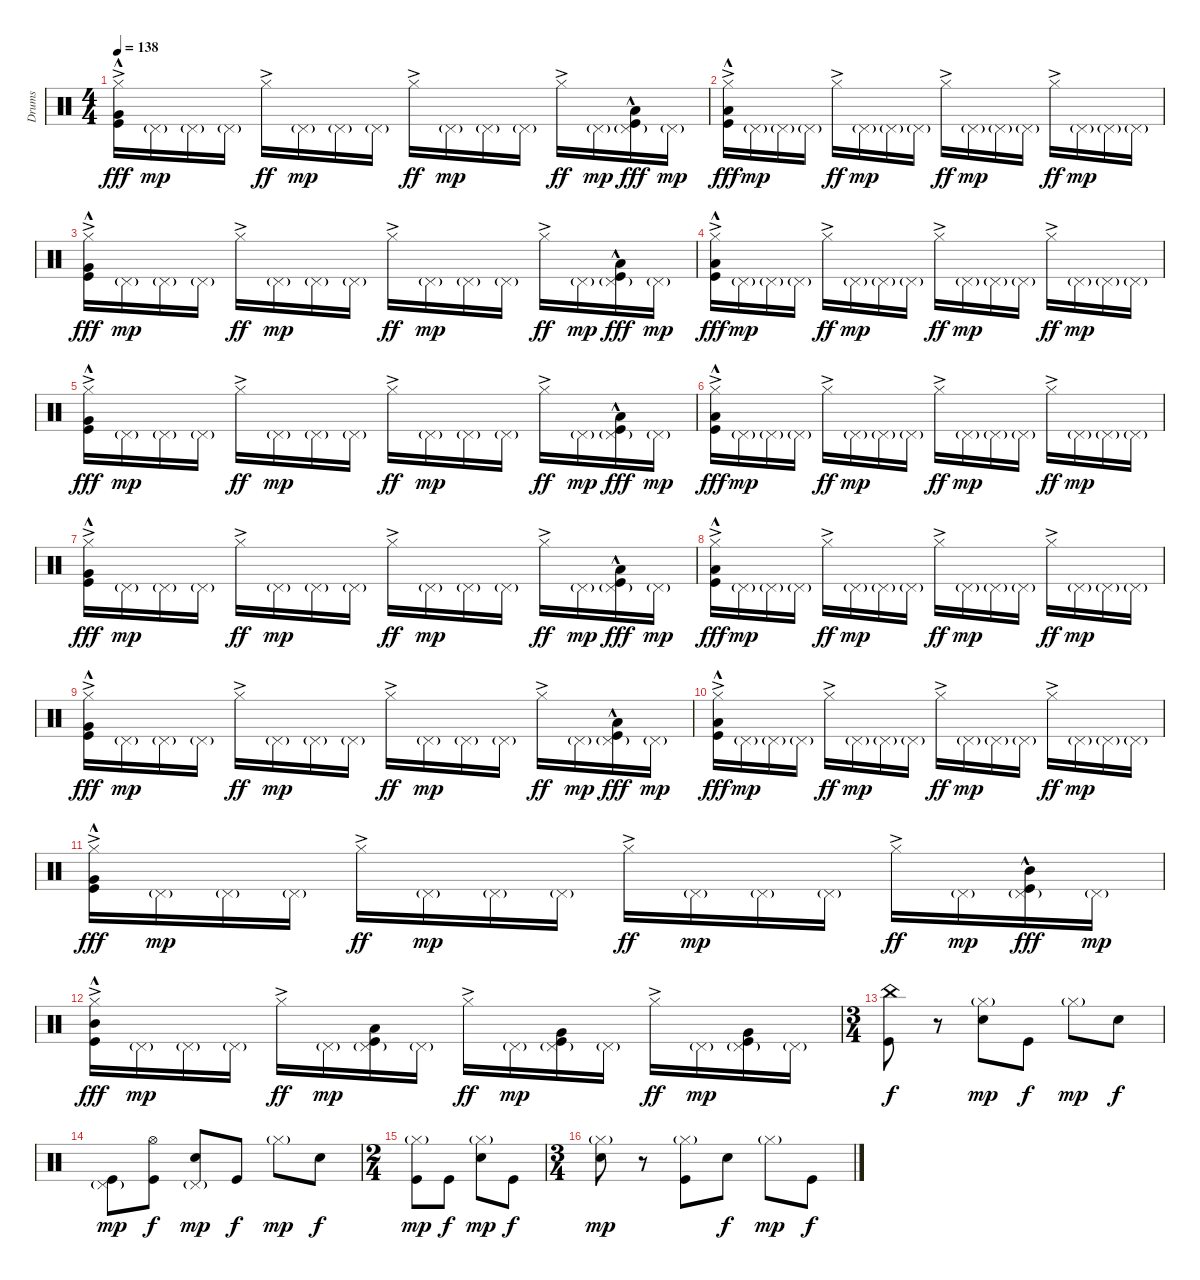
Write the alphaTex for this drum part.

\track ("Drums" "Drums") {instrument percussion}
\staff {score}
\articulation defaults
\ts (4 4)
\tempo 138
\clef neutral
\ks c
("Hi-Hat (closed)"{ac} "Very Low Tom (hit)"{hac} "Kick (hit)").16{dy fff} "Pedal Hi-Hat (hit)"{g}.16{dy mp} "Pedal Hi-Hat (hit)"{g}.16 "Pedal Hi-Hat (hit)"{g}.16 "Hi-Hat (closed)"{ac}.16{dy ff} "Pedal Hi-Hat (hit)"{g}.16{dy mp} "Pedal Hi-Hat (hit)"{g}.16 "Pedal Hi-Hat (hit)"{g}.16 "Hi-Hat (closed)"{ac}.16{dy ff} "Pedal Hi-Hat (hit)"{g}.16{dy mp} "Pedal Hi-Hat (hit)"{g}.16 "Pedal Hi-Hat (hit)"{g}.16 "Hi-Hat (closed)"{ac}.16{dy ff} "Pedal Hi-Hat (hit)"{g}.16{dy mp} ("Pedal Hi-Hat (hit)"{g} "Low Tom (hit)"{hac} "Kick (hit)").16{dy fff} "Pedal Hi-Hat (hit)"{g}.16{dy mp} |
("Hi-Hat (closed)"{ac} "Low Tom (hit)"{hac} "Kick (hit)").16{dy fff} "Pedal Hi-Hat (hit)"{g}.16{dy mp} "Pedal Hi-Hat (hit)"{g}.16 "Pedal Hi-Hat (hit)"{g}.16 "Hi-Hat (closed)"{ac}.16{dy ff} "Pedal Hi-Hat (hit)"{g}.16{dy mp} "Pedal Hi-Hat (hit)"{g}.16 "Pedal Hi-Hat (hit)"{g}.16 "Hi-Hat (closed)"{ac}.16{dy ff} "Pedal Hi-Hat (hit)"{g}.16{dy mp} "Pedal Hi-Hat (hit)"{g}.16 "Pedal Hi-Hat (hit)"{g}.16 "Hi-Hat (closed)"{ac}.16{dy ff} "Pedal Hi-Hat (hit)"{g}.16{dy mp} "Pedal Hi-Hat (hit)"{g}.16 "Pedal Hi-Hat (hit)"{g}.16 |
("Hi-Hat (closed)"{ac} "Very Low Tom (hit)"{hac} "Kick (hit)").16{dy fff} "Pedal Hi-Hat (hit)"{g}.16{dy mp} "Pedal Hi-Hat (hit)"{g}.16 "Pedal Hi-Hat (hit)"{g}.16 "Hi-Hat (closed)"{ac}.16{dy ff} "Pedal Hi-Hat (hit)"{g}.16{dy mp} "Pedal Hi-Hat (hit)"{g}.16 "Pedal Hi-Hat (hit)"{g}.16 "Hi-Hat (closed)"{ac}.16{dy ff} "Pedal Hi-Hat (hit)"{g}.16{dy mp} "Pedal Hi-Hat (hit)"{g}.16 "Pedal Hi-Hat (hit)"{g}.16 "Hi-Hat (closed)"{ac}.16{dy ff} "Pedal Hi-Hat (hit)"{g}.16{dy mp} ("Pedal Hi-Hat (hit)"{g} "Low Tom (hit)"{hac} "Kick (hit)").16{dy fff} "Pedal Hi-Hat (hit)"{g}.16{dy mp} |
("Hi-Hat (closed)"{ac} "Low Tom (hit)"{hac} "Kick (hit)").16{dy fff} "Pedal Hi-Hat (hit)"{g}.16{dy mp} "Pedal Hi-Hat (hit)"{g}.16 "Pedal Hi-Hat (hit)"{g}.16 "Hi-Hat (closed)"{ac}.16{dy ff} "Pedal Hi-Hat (hit)"{g}.16{dy mp} "Pedal Hi-Hat (hit)"{g}.16 "Pedal Hi-Hat (hit)"{g}.16 "Hi-Hat (closed)"{ac}.16{dy ff} "Pedal Hi-Hat (hit)"{g}.16{dy mp} "Pedal Hi-Hat (hit)"{g}.16 "Pedal Hi-Hat (hit)"{g}.16 "Hi-Hat (closed)"{ac}.16{dy ff} "Pedal Hi-Hat (hit)"{g}.16{dy mp} "Pedal Hi-Hat (hit)"{g}.16 "Pedal Hi-Hat (hit)"{g}.16 |
("Hi-Hat (closed)"{ac} "Very Low Tom (hit)"{hac} "Kick (hit)").16{dy fff} "Pedal Hi-Hat (hit)"{g}.16{dy mp} "Pedal Hi-Hat (hit)"{g}.16 "Pedal Hi-Hat (hit)"{g}.16 "Hi-Hat (closed)"{ac}.16{dy ff} "Pedal Hi-Hat (hit)"{g}.16{dy mp} "Pedal Hi-Hat (hit)"{g}.16 "Pedal Hi-Hat (hit)"{g}.16 "Hi-Hat (closed)"{ac}.16{dy ff} "Pedal Hi-Hat (hit)"{g}.16{dy mp} "Pedal Hi-Hat (hit)"{g}.16 "Pedal Hi-Hat (hit)"{g}.16 "Hi-Hat (closed)"{ac}.16{dy ff} "Pedal Hi-Hat (hit)"{g}.16{dy mp} ("Pedal Hi-Hat (hit)"{g} "Low Tom (hit)"{hac} "Kick (hit)").16{dy fff} "Pedal Hi-Hat (hit)"{g}.16{dy mp} |
("Hi-Hat (closed)"{ac} "Low Tom (hit)"{hac} "Kick (hit)").16{dy fff} "Pedal Hi-Hat (hit)"{g}.16{dy mp} "Pedal Hi-Hat (hit)"{g}.16 "Pedal Hi-Hat (hit)"{g}.16 "Hi-Hat (closed)"{ac}.16{dy ff} "Pedal Hi-Hat (hit)"{g}.16{dy mp} "Pedal Hi-Hat (hit)"{g}.16 "Pedal Hi-Hat (hit)"{g}.16 "Hi-Hat (closed)"{ac}.16{dy ff} "Pedal Hi-Hat (hit)"{g}.16{dy mp} "Pedal Hi-Hat (hit)"{g}.16 "Pedal Hi-Hat (hit)"{g}.16 "Hi-Hat (closed)"{ac}.16{dy ff} "Pedal Hi-Hat (hit)"{g}.16{dy mp} "Pedal Hi-Hat (hit)"{g}.16 "Pedal Hi-Hat (hit)"{g}.16 |
("Hi-Hat (closed)"{ac} "Very Low Tom (hit)"{hac} "Kick (hit)").16{dy fff} "Pedal Hi-Hat (hit)"{g}.16{dy mp} "Pedal Hi-Hat (hit)"{g}.16 "Pedal Hi-Hat (hit)"{g}.16 "Hi-Hat (closed)"{ac}.16{dy ff} "Pedal Hi-Hat (hit)"{g}.16{dy mp} "Pedal Hi-Hat (hit)"{g}.16 "Pedal Hi-Hat (hit)"{g}.16 "Hi-Hat (closed)"{ac}.16{dy ff} "Pedal Hi-Hat (hit)"{g}.16{dy mp} "Pedal Hi-Hat (hit)"{g}.16 "Pedal Hi-Hat (hit)"{g}.16 "Hi-Hat (closed)"{ac}.16{dy ff} "Pedal Hi-Hat (hit)"{g}.16{dy mp} ("Pedal Hi-Hat (hit)"{g} "Low Tom (hit)"{hac} "Kick (hit)").16{dy fff} "Pedal Hi-Hat (hit)"{g}.16{dy mp} |
("Hi-Hat (closed)"{ac} "Low Tom (hit)"{hac} "Kick (hit)").16{dy fff} "Pedal Hi-Hat (hit)"{g}.16{dy mp} "Pedal Hi-Hat (hit)"{g}.16 "Pedal Hi-Hat (hit)"{g}.16 "Hi-Hat (closed)"{ac}.16{dy ff} "Pedal Hi-Hat (hit)"{g}.16{dy mp} "Pedal Hi-Hat (hit)"{g}.16 "Pedal Hi-Hat (hit)"{g}.16 "Hi-Hat (closed)"{ac}.16{dy ff} "Pedal Hi-Hat (hit)"{g}.16{dy mp} "Pedal Hi-Hat (hit)"{g}.16 "Pedal Hi-Hat (hit)"{g}.16 "Hi-Hat (closed)"{ac}.16{dy ff} "Pedal Hi-Hat (hit)"{g}.16{dy mp} "Pedal Hi-Hat (hit)"{g}.16 "Pedal Hi-Hat (hit)"{g}.16 |
("Hi-Hat (closed)"{ac} "Very Low Tom (hit)"{hac} "Kick (hit)").16{dy fff} "Pedal Hi-Hat (hit)"{g}.16{dy mp} "Pedal Hi-Hat (hit)"{g}.16 "Pedal Hi-Hat (hit)"{g}.16 "Hi-Hat (closed)"{ac}.16{dy ff} "Pedal Hi-Hat (hit)"{g}.16{dy mp} "Pedal Hi-Hat (hit)"{g}.16 "Pedal Hi-Hat (hit)"{g}.16 "Hi-Hat (closed)"{ac}.16{dy ff} "Pedal Hi-Hat (hit)"{g}.16{dy mp} "Pedal Hi-Hat (hit)"{g}.16 "Pedal Hi-Hat (hit)"{g}.16 "Hi-Hat (closed)"{ac}.16{dy ff} "Pedal Hi-Hat (hit)"{g}.16{dy mp} ("Pedal Hi-Hat (hit)"{g} "Low Tom (hit)"{hac} "Kick (hit)").16{dy fff} "Pedal Hi-Hat (hit)"{g}.16{dy mp} |
("Hi-Hat (closed)"{ac} "Low Tom (hit)"{hac} "Kick (hit)").16{dy fff} "Pedal Hi-Hat (hit)"{g}.16{dy mp} "Pedal Hi-Hat (hit)"{g}.16 "Pedal Hi-Hat (hit)"{g}.16 "Hi-Hat (closed)"{ac}.16{dy ff} "Pedal Hi-Hat (hit)"{g}.16{dy mp} "Pedal Hi-Hat (hit)"{g}.16 "Pedal Hi-Hat (hit)"{g}.16 "Hi-Hat (closed)"{ac}.16{dy ff} "Pedal Hi-Hat (hit)"{g}.16{dy mp} "Pedal Hi-Hat (hit)"{g}.16 "Pedal Hi-Hat (hit)"{g}.16 "Hi-Hat (closed)"{ac}.16{dy ff} "Pedal Hi-Hat (hit)"{g}.16{dy mp} "Pedal Hi-Hat (hit)"{g}.16 "Pedal Hi-Hat (hit)"{g}.16 |
("Hi-Hat (closed)"{ac} "Very Low Tom (hit)"{hac} "Kick (hit)").16{dy fff} "Pedal Hi-Hat (hit)"{g}.16{dy mp} "Pedal Hi-Hat (hit)"{g}.16 "Pedal Hi-Hat (hit)"{g}.16 "Hi-Hat (closed)"{ac}.16{dy ff} "Pedal Hi-Hat (hit)"{g}.16{dy mp} "Pedal Hi-Hat (hit)"{g}.16 "Pedal Hi-Hat (hit)"{g}.16 "Hi-Hat (closed)"{ac}.16{dy ff} "Pedal Hi-Hat (hit)"{g}.16{dy mp} "Pedal Hi-Hat (hit)"{g}.16 "Pedal Hi-Hat (hit)"{g}.16 "Hi-Hat (closed)"{ac}.16{dy ff} "Pedal Hi-Hat (hit)"{g}.16{dy mp} ("Pedal Hi-Hat (hit)"{g} "Mid Tom (hit)"{hac} "Kick (hit)").16{dy fff} "Pedal Hi-Hat (hit)"{g}.16{dy mp} |
("Hi-Hat (closed)"{ac} "Mid Tom (hit)"{hac} "Kick (hit)").16{dy fff} "Pedal Hi-Hat (hit)"{g}.16{dy mp} "Pedal Hi-Hat (hit)"{g}.16 "Pedal Hi-Hat (hit)"{g}.16 "Hi-Hat (closed)"{ac}.16{dy ff} "Pedal Hi-Hat (hit)"{g}.16{dy mp} ("Pedal Hi-Hat (hit)"{g} "Low Tom (hit)" "Kick (hit)").16 "Pedal Hi-Hat (hit)"{g}.16 "Hi-Hat (closed)"{ac}.16{dy ff} "Pedal Hi-Hat (hit)"{g}.16{dy mp} ("Pedal Hi-Hat (hit)"{g} "Very Low Tom (hit)" "Kick (hit)").16 "Pedal Hi-Hat (hit)"{g}.16 "Hi-Hat (closed)"{ac}.16{dy ff} "Pedal Hi-Hat (hit)"{g}.16{dy mp} ("Pedal Hi-Hat (hit)"{g} "Very Low Tom (hit)" "Kick (hit)").16 "Pedal Hi-Hat (hit)"{g}.16 |
\ts (3 4)
("China (hit)" "Kick (hit)").8{dy f} r.8 ("Hi-Hat (closed)"{g} "Electric Snare (hit)").8{dy mp} "Kick (hit)".8{dy f} "Hi-Hat (closed)"{g}.8{dy mp} "Electric Snare (hit)".8{dy f} |
("Pedal Hi-Hat (hit)"{g} "Kick (hit)").8{dy mp} ("Hi-Hat (open)" "Kick (hit)").8{dy f} ("Pedal Hi-Hat (hit)"{g} "Electric Snare (hit)").8{dy mp} "Kick (hit)".8{dy f} "Hi-Hat (closed)"{g}.8{dy mp} "Electric Snare (hit)".8{dy f} |
\ts (2 4)
("Hi-Hat (closed)"{g} "Kick (hit)").8{dy mp} "Kick (hit)".8{dy f} ("Hi-Hat (closed)"{g} "Electric Snare (hit)").8{dy mp} "Kick (hit)".8{dy f} |
\ts (3 4)
("Hi-Hat (closed)"{g} "Electric Snare (hit)").8{dy mp} r.8 ("Hi-Hat (closed)"{g} "Kick (hit)").8 "Electric Snare (hit)".8{dy f} "Hi-Hat (closed)"{g}.8{dy mp} "Kick (hit)".8{dy f}
